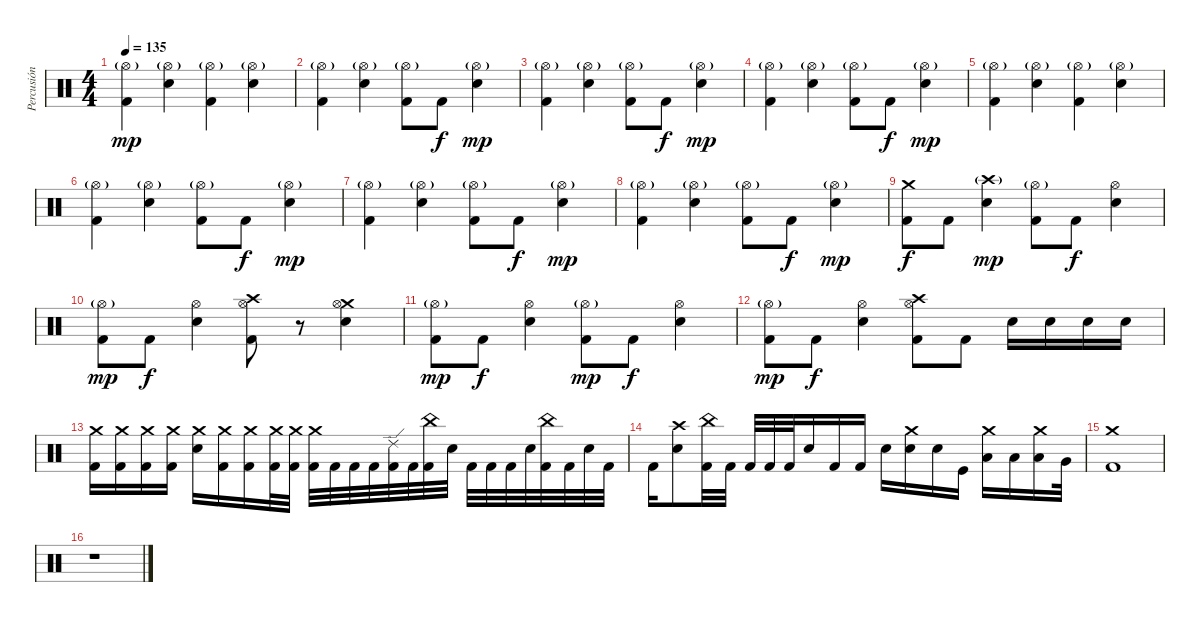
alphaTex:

\track ("Percusión" "Percusión") {instrument percussion}
\staff {score}
\articulation defaults
\ts (4 4)
\tempo 135
\clef neutral
\ks c
("Hi-Hat (open)"{g} "Kick (hit) 2").4{dy mp} ("Hi-Hat (open)"{g} "Snare (hit) 2").4 ("Hi-Hat (open)"{g} "Kick (hit) 2").4 ("Hi-Hat (open)"{g} "Snare (hit) 2").4 |
("Hi-Hat (open)"{g} "Kick (hit) 2").4 ("Hi-Hat (open)"{g} "Snare (hit) 2").4 ("Hi-Hat (open)"{g} "Kick (hit) 2").8 "Kick (hit) 2".8{dy f} ("Hi-Hat (open)"{g} "Snare (hit) 2").4{dy mp} |
("Hi-Hat (open)"{g} "Kick (hit) 2").4 ("Hi-Hat (open)"{g} "Snare (hit) 2").4 ("Hi-Hat (open)"{g} "Kick (hit) 2").8 "Kick (hit) 2".8{dy f} ("Hi-Hat (open)"{g} "Snare (hit) 2").4{dy mp} |
("Hi-Hat (open)"{g} "Kick (hit) 2").4 ("Hi-Hat (open)"{g} "Snare (hit) 2").4 ("Hi-Hat (open)"{g} "Kick (hit) 2").8 "Kick (hit) 2".8{dy f} ("Hi-Hat (open)"{g} "Snare (hit) 2").4{dy mp} |
("Hi-Hat (open)"{g} "Kick (hit) 2").4 ("Hi-Hat (open)"{g} "Snare (hit) 2").4 ("Hi-Hat (open)"{g} "Kick (hit) 2").4 ("Hi-Hat (open)"{g} "Snare (hit) 2").4 |
("Hi-Hat (open)"{g} "Kick (hit) 2").4 ("Hi-Hat (open)"{g} "Snare (hit) 2").4 ("Hi-Hat (open)"{g} "Kick (hit) 2").8 "Kick (hit) 2".8{dy f} ("Hi-Hat (open)"{g} "Snare (hit) 2").4{dy mp} |
("Hi-Hat (open)"{g} "Kick (hit) 2").4 ("Hi-Hat (open)"{g} "Snare (hit) 2").4 ("Hi-Hat (open)"{g} "Kick (hit) 2").8 "Kick (hit) 2".8{dy f} ("Hi-Hat (open)"{g} "Snare (hit) 2").4{dy mp} |
("Hi-Hat (open)"{g} "Kick (hit) 2").4 ("Hi-Hat (open)"{g} "Snare (hit) 2").4 ("Hi-Hat (open)"{g} "Kick (hit) 2").8 "Kick (hit) 2".8{dy f} ("Hi-Hat (open)"{g} "Snare (hit) 2").4{dy mp} |
("Crash medium (hit)" "Kick (hit) 2").8{dy f} "Kick (hit) 2".8 ("Crash high (hit)"{g} "Snare (hit) 2").4{dy mp} ("Hi-Hat (open)"{g} "Kick (hit) 2").8 "Kick (hit) 2".8{dy f} ("Hi-Hat (open)" "Snare (hit) 2").4 |
("Hi-Hat (open)"{g} "Kick (hit) 2").8{dy mp} "Kick (hit) 2".8{dy f} ("Hi-Hat (open)" "Snare (hit) 2").4 ("Crash high (hit)" "Hi-Hat (open)" "Kick (hit) 2").8 r.8 ("Crash medium (hit)" "Hi-Hat (open)" "Snare (hit) 2").4 |
("Hi-Hat (open)"{g} "Kick (hit) 2").8{dy mp} "Kick (hit) 2".8{dy f} ("Hi-Hat (open)" "Snare (hit) 2").4 ("Hi-Hat (open)"{g} "Kick (hit) 2").8{dy mp} "Kick (hit) 2".8{dy f} ("Hi-Hat (open)" "Snare (hit) 2").4 |
("Hi-Hat (open)"{g} "Kick (hit) 2").8{dy mp} "Kick (hit) 2".8{dy f} ("Hi-Hat (open)" "Snare (hit) 2").4 ("Crash high (hit)" "Hi-Hat (open)" "Kick (hit) 2").8 "Kick (hit) 2".8 "Snare (hit) 2".16 "Snare (hit) 2".16 "Snare (hit) 2".16 "Snare (hit) 2".16 |
("Crash medium (hit)" "Kick (hit) 2").16 ("Crash medium (hit)" "Kick (hit) 2").16 ("Crash medium (hit)" "Kick (hit) 2").16 ("Crash medium (hit)" "Kick (hit) 2").16 ("Crash medium (hit)" "Snare (hit) 2").16 ("Crash medium (hit)" "Kick (hit) 2").16 ("Crash medium (hit)" "Kick (hit) 2").16 ("Crash medium (hit)" "Kick (hit) 2").32 ("Crash medium (hit)" "Kick (hit) 2").32 ("Crash medium (hit)" "Kick (hit) 2").32 "Kick (hit) 2".32 "Kick (hit) 2".32 "Kick (hit) 2".32 ("Ride (edge) 2" "Kick (hit) 2").32 "Kick (hit) 2".32 ("China (hit)" "Kick (hit) 2").32 "Snare (hit) 2".32 "Kick (hit) 2".32 "Kick (hit) 2".32 "Kick (hit) 2".32 "Snare (hit) 2".32 ("China (hit)" "Kick (hit) 2").32 "Kick (hit) 2".32 "Snare (hit) 2".32 "Kick (hit) 2".32 |
"Kick (hit) 2".16 ("Crash high (hit)" "Snare (hit) 2").8 ("China (hit)" "Kick (hit) 2").32 "Kick (hit) 2".32 "Kick (hit) 2".32 "Kick (hit) 2".32 "Kick (hit) 2".32 "Snare (hit) 2".16 "Kick (hit) 2".16 "Kick (hit) 2".16 "Snare (hit) 2".16 ("Crash medium (hit)" "Snare (hit) 2").16 "Snare (hit) 2".16 "Kick (hit)".16 ("Crash medium (hit)" "Low Tom (hit)").16 "Low Tom (hit)".16 ("Crash medium (hit)" "Low Tom (hit)").16 "Very Low Tom (hit)".32 |
("Crash medium (hit)" "Kick (hit) 2").1 |
r.1
